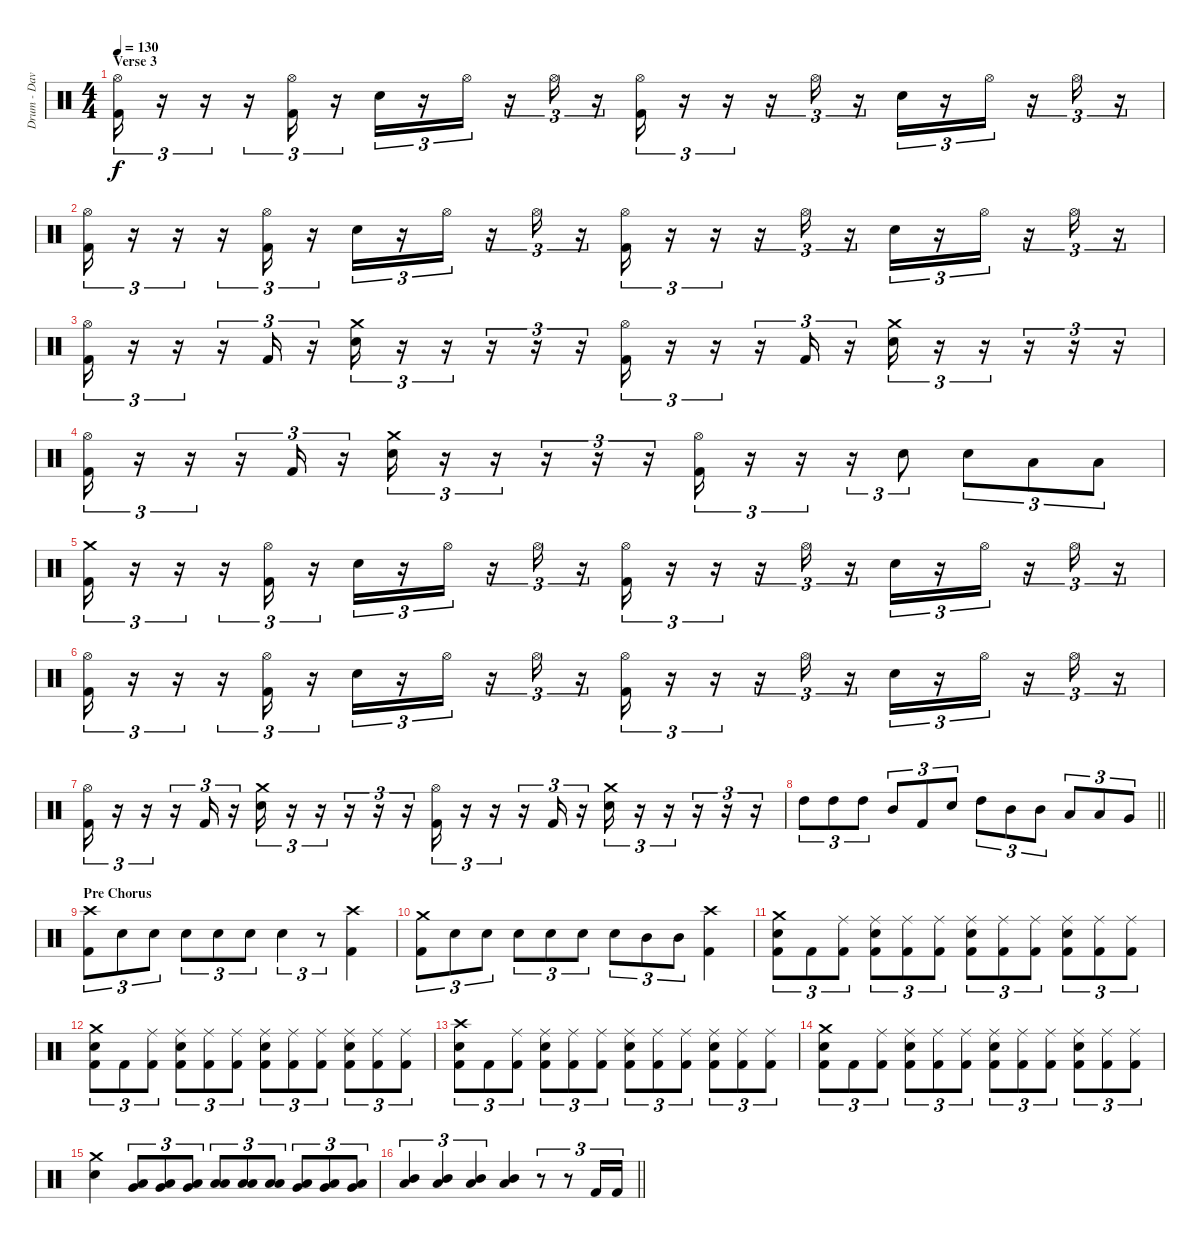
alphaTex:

\track ("Drum - Dave Mackintosh" "Drum - Dav") {instrument percussion}
\staff {score}
\articulation defaults
\ts (4 4)
\section ("" "Verse 3")
\tempo 130
\clef neutral
\ks c
("Hi-Hat (open)" "Kick (hit) 2").16{tu (3 2) dy f} r.16{tu (3 2)} r.16{tu (3 2)} r.16{tu (3 2)} ("Hi-Hat (open)" "Kick (hit) 2").16{tu (3 2)} r.16{tu (3 2)} "Electric Snare (hit)".16{tu (3 2)} r.16{tu (3 2)} "Hi-Hat (open)".16{tu (3 2)} r.16{tu (3 2)} "Hi-Hat (open)".16{tu (3 2)} r.16{tu (3 2)} ("Hi-Hat (open)" "Kick (hit) 2").16{tu (3 2)} r.16{tu (3 2)} r.16{tu (3 2)} r.16{tu (3 2)} "Hi-Hat (open)".16{tu (3 2)} r.16{tu (3 2)} "Electric Snare (hit)".16{tu (3 2)} r.16{tu (3 2)} "Hi-Hat (open)".16{tu (3 2)} r.16{tu (3 2)} "Hi-Hat (open)".16{tu (3 2)} r.16{tu (3 2)} |
("Hi-Hat (open)" "Kick (hit) 2").16{tu (3 2)} r.16{tu (3 2)} r.16{tu (3 2)} r.16{tu (3 2)} ("Hi-Hat (open)" "Kick (hit) 2").16{tu (3 2)} r.16{tu (3 2)} "Electric Snare (hit)".16{tu (3 2)} r.16{tu (3 2)} "Hi-Hat (open)".16{tu (3 2)} r.16{tu (3 2)} "Hi-Hat (open)".16{tu (3 2)} r.16{tu (3 2)} ("Hi-Hat (open)" "Kick (hit) 2").16{tu (3 2)} r.16{tu (3 2)} r.16{tu (3 2)} r.16{tu (3 2)} "Hi-Hat (open)".16{tu (3 2)} r.16{tu (3 2)} "Electric Snare (hit)".16{tu (3 2)} r.16{tu (3 2)} "Hi-Hat (open)".16{tu (3 2)} r.16{tu (3 2)} "Hi-Hat (open)".16{tu (3 2)} r.16{tu (3 2)} |
("Hi-Hat (open)" "Kick (hit) 2").16{tu (3 2)} r.16{tu (3 2)} r.16{tu (3 2)} r.16{tu (3 2)} "Kick (hit) 2".16{tu (3 2)} r.16{tu (3 2)} ("Crash medium (hit)" "Electric Snare (hit)").16{tu (3 2)} r.16{tu (3 2)} r.16{tu (3 2)} r.16{tu (3 2)} r.16{tu (3 2)} r.16{tu (3 2)} ("Hi-Hat (open)" "Kick (hit) 2").16{tu (3 2)} r.16{tu (3 2)} r.16{tu (3 2)} r.16{tu (3 2)} "Kick (hit) 2".16{tu (3 2)} r.16{tu (3 2)} ("Crash medium (hit)" "Electric Snare (hit)").16{tu (3 2)} r.16{tu (3 2)} r.16{tu (3 2)} r.16{tu (3 2)} r.16{tu (3 2)} r.16{tu (3 2)} |
("Hi-Hat (open)" "Kick (hit) 2").16{tu (3 2)} r.16{tu (3 2)} r.16{tu (3 2)} r.16{tu (3 2)} "Kick (hit) 2".16{tu (3 2)} r.16{tu (3 2)} ("Crash medium (hit)" "Electric Snare (hit)").16{tu (3 2)} r.16{tu (3 2)} r.16{tu (3 2)} r.16{tu (3 2)} r.16{tu (3 2)} r.16{tu (3 2)} ("Hi-Hat (open)" "Kick (hit) 2").16{tu (3 2)} r.16{tu (3 2)} r.16{tu (3 2)} r.16{tu (3 2)} "Electric Snare (hit)".8{tu (3 2)} "Electric Snare (hit)".8{tu (3 2)} "Low Tom (hit)".8{tu (3 2)} "Low Tom (hit)".8{tu (3 2)} |
("Crash medium (hit)" "Kick (hit) 2").16{tu (3 2)} r.16{tu (3 2)} r.16{tu (3 2)} r.16{tu (3 2)} ("Hi-Hat (open)" "Kick (hit) 2").16{tu (3 2)} r.16{tu (3 2)} "Electric Snare (hit)".16{tu (3 2)} r.16{tu (3 2)} "Hi-Hat (open)".16{tu (3 2)} r.16{tu (3 2)} "Hi-Hat (open)".16{tu (3 2)} r.16{tu (3 2)} ("Hi-Hat (open)" "Kick (hit) 2").16{tu (3 2)} r.16{tu (3 2)} r.16{tu (3 2)} r.16{tu (3 2)} "Hi-Hat (open)".16{tu (3 2)} r.16{tu (3 2)} "Electric Snare (hit)".16{tu (3 2)} r.16{tu (3 2)} "Hi-Hat (open)".16{tu (3 2)} r.16{tu (3 2)} "Hi-Hat (open)".16{tu (3 2)} r.16{tu (3 2)} |
("Hi-Hat (open)" "Kick (hit) 2").16{tu (3 2)} r.16{tu (3 2)} r.16{tu (3 2)} r.16{tu (3 2)} ("Hi-Hat (open)" "Kick (hit) 2").16{tu (3 2)} r.16{tu (3 2)} "Electric Snare (hit)".16{tu (3 2)} r.16{tu (3 2)} "Hi-Hat (open)".16{tu (3 2)} r.16{tu (3 2)} "Hi-Hat (open)".16{tu (3 2)} r.16{tu (3 2)} ("Hi-Hat (open)" "Kick (hit) 2").16{tu (3 2)} r.16{tu (3 2)} r.16{tu (3 2)} r.16{tu (3 2)} "Hi-Hat (open)".16{tu (3 2)} r.16{tu (3 2)} "Electric Snare (hit)".16{tu (3 2)} r.16{tu (3 2)} "Hi-Hat (open)".16{tu (3 2)} r.16{tu (3 2)} "Hi-Hat (open)".16{tu (3 2)} r.16{tu (3 2)} |
("Hi-Hat (open)" "Kick (hit) 2").16{tu (3 2)} r.16{tu (3 2)} r.16{tu (3 2)} r.16{tu (3 2)} "Kick (hit) 2".16{tu (3 2)} r.16{tu (3 2)} ("Crash medium (hit)" "Electric Snare (hit)").16{tu (3 2)} r.16{tu (3 2)} r.16{tu (3 2)} r.16{tu (3 2)} r.16{tu (3 2)} r.16{tu (3 2)} ("Hi-Hat (open)" "Kick (hit) 2").16{tu (3 2)} r.16{tu (3 2)} r.16{tu (3 2)} r.16{tu (3 2)} "Kick (hit) 2".16{tu (3 2)} r.16{tu (3 2)} ("Crash medium (hit)" "Electric Snare (hit)").16{tu (3 2)} r.16{tu (3 2)} r.16{tu (3 2)} r.16{tu (3 2)} r.16{tu (3 2)} r.16{tu (3 2)} |
\barLineRight lightlight "High Tom (hit)".8{tu (3 2)} "High Tom (hit)".8{tu (3 2)} "High Tom (hit)".8{tu (3 2)} "Mid Tom (hit)".8{tu (3 2)} "Kick (hit) 2".8{tu (3 2)} "Electric Snare (hit)".8{tu (3 2)} "High Tom (hit)".8{tu (3 2)} "Mid Tom (hit)".8{tu (3 2)} "Mid Tom (hit)".8{tu (3 2)} "Low Tom (hit)".8{tu (3 2)} "Low Tom (hit)".8{tu (3 2)} "Very Low Tom (hit)".8{tu (3 2)}
|
\section ("" "Pre Chorus")
("Crash high (hit)" "Kick (hit) 2").8{tu (3 2)} "Electric Snare (hit)".8{tu (3 2)} "Electric Snare (hit)".8{tu (3 2)} "Electric Snare (hit)".8{tu (3 2)} "Electric Snare (hit)".8{tu (3 2)} "Electric Snare (hit)".8{tu (3 2)} "Electric Snare (hit)".4{tu (3 2)} r.8{tu (3 2)} ("Crash high (hit)" "Kick (hit) 2").4 |
("Crash medium (hit)" "Kick (hit) 2").8{tu (3 2)} "Electric Snare (hit)".8{tu (3 2)} "Electric Snare (hit)".8{tu (3 2)} "Electric Snare (hit)".8{tu (3 2)} "Electric Snare (hit)".8{tu (3 2)} "Electric Snare (hit)".8{tu (3 2)} "Electric Snare (hit)".8{tu (3 2)} "Mid Tom (hit)".8{tu (3 2)} "Mid Tom (hit)".8{tu (3 2)} ("Crash high (hit)" "Kick (hit) 2").4 |
("Crash medium (hit)" "Electric Snare (hit)" "Kick (hit) 2").8{tu (3 2)} "Kick (hit) 2".8{tu (3 2)} ("Ride (middle)" "Kick (hit) 2").8{tu (3 2)} ("Ride (middle)" "Electric Snare (hit)" "Kick (hit) 2").8{tu (3 2)} ("Ride (middle)" "Kick (hit) 2").8{tu (3 2)} ("Ride (middle)" "Kick (hit) 2").8{tu (3 2)} ("Ride (middle)" "Electric Snare (hit)" "Kick (hit) 2").8{tu (3 2)} ("Ride (middle)" "Kick (hit) 2").8{tu (3 2)} ("Ride (middle)" "Kick (hit) 2").8{tu (3 2)} ("Ride (middle)" "Electric Snare (hit)" "Kick (hit) 2").8{tu (3 2)} ("Ride (middle)" "Kick (hit) 2").8{tu (3 2)} ("Ride (middle)" "Kick (hit) 2").8{tu (3 2)} |
("Crash medium (hit)" "Electric Snare (hit)" "Kick (hit) 2").8{tu (3 2)} "Kick (hit) 2".8{tu (3 2)} ("Ride (middle)" "Kick (hit) 2").8{tu (3 2)} ("Ride (middle)" "Electric Snare (hit)" "Kick (hit) 2").8{tu (3 2)} ("Ride (middle)" "Kick (hit) 2").8{tu (3 2)} ("Ride (middle)" "Kick (hit) 2").8{tu (3 2)} ("Ride (middle)" "Electric Snare (hit)" "Kick (hit) 2").8{tu (3 2)} ("Ride (middle)" "Kick (hit) 2").8{tu (3 2)} ("Ride (middle)" "Kick (hit) 2").8{tu (3 2)} ("Ride (middle)" "Electric Snare (hit)" "Kick (hit) 2").8{tu (3 2)} ("Ride (middle)" "Kick (hit) 2").8{tu (3 2)} ("Ride (middle)" "Kick (hit) 2").8{tu (3 2)} |
("Crash high (hit)" "Electric Snare (hit)" "Kick (hit) 2").8{tu (3 2)} "Kick (hit) 2".8{tu (3 2)} ("Ride (middle)" "Kick (hit) 2").8{tu (3 2)} ("Ride (middle)" "Electric Snare (hit)" "Kick (hit) 2").8{tu (3 2)} ("Ride (middle)" "Kick (hit) 2").8{tu (3 2)} ("Ride (middle)" "Kick (hit) 2").8{tu (3 2)} ("Ride (middle)" "Electric Snare (hit)" "Kick (hit) 2").8{tu (3 2)} ("Ride (middle)" "Kick (hit) 2").8{tu (3 2)} ("Ride (middle)" "Kick (hit) 2").8{tu (3 2)} ("Ride (middle)" "Electric Snare (hit)" "Kick (hit) 2").8{tu (3 2)} ("Ride (middle)" "Kick (hit) 2").8{tu (3 2)} ("Ride (middle)" "Kick (hit) 2").8{tu (3 2)} |
("Crash medium (hit)" "Electric Snare (hit)" "Kick (hit) 2").8{tu (3 2)} "Kick (hit) 2".8{tu (3 2)} ("Ride (middle)" "Kick (hit) 2").8{tu (3 2)} ("Ride (middle)" "Electric Snare (hit)" "Kick (hit) 2").8{tu (3 2)} ("Ride (middle)" "Kick (hit) 2").8{tu (3 2)} ("Ride (middle)" "Kick (hit) 2").8{tu (3 2)} ("Ride (middle)" "Electric Snare (hit)" "Kick (hit) 2").8{tu (3 2)} ("Ride (middle)" "Kick (hit) 2").8{tu (3 2)} ("Ride (middle)" "Kick (hit) 2").8{tu (3 2)} ("Ride (middle)" "Electric Snare (hit)" "Kick (hit) 2").8{tu (3 2)} ("Ride (middle)" "Kick (hit) 2").8{tu (3 2)} ("Ride (middle)" "Kick (hit) 2").8{tu (3 2)} |
("Crash medium (hit)" "Electric Snare (hit)").4 ("Low Tom (hit)" "Very Low Tom (hit)").8{tu (3 2)} ("Low Tom (hit)" "Very Low Tom (hit)").8{tu (3 2)} ("Low Tom (hit)" "Very Low Tom (hit)").8{tu (3 2)} ("Low Tom (hit)" "Low Floor Tom (hit)").8{tu (3 2)} ("Low Tom (hit)" "Low Floor Tom (hit)").8{tu (3 2)} ("Low Tom (hit)" "Low Floor Tom (hit)").8{tu (3 2)} ("Very Low Tom (hit)" "Low Floor Tom (hit)").8{tu (3 2)} ("Very Low Tom (hit)" "Low Floor Tom (hit)").8{tu (3 2)} ("Very Low Tom (hit)" "Low Floor Tom (hit)").8{tu (3 2)} |
\barLineRight lightlight
("Mid Tom (hit)" "Low Tom (hit)").4{tu (3 2)} ("Mid Tom (hit)" "Low Tom (hit)").4{tu (3 2)} ("Mid Tom (hit)" "Low Tom (hit)").4{tu (3 2)} ("Mid Tom (hit)" "Low Tom (hit)").4 r.8{tu (3 2)} r.8{tu (3 2)} "Kick (hit) 2".16{tu (3 2)} "Kick (hit) 2".16{tu (3 2)}
